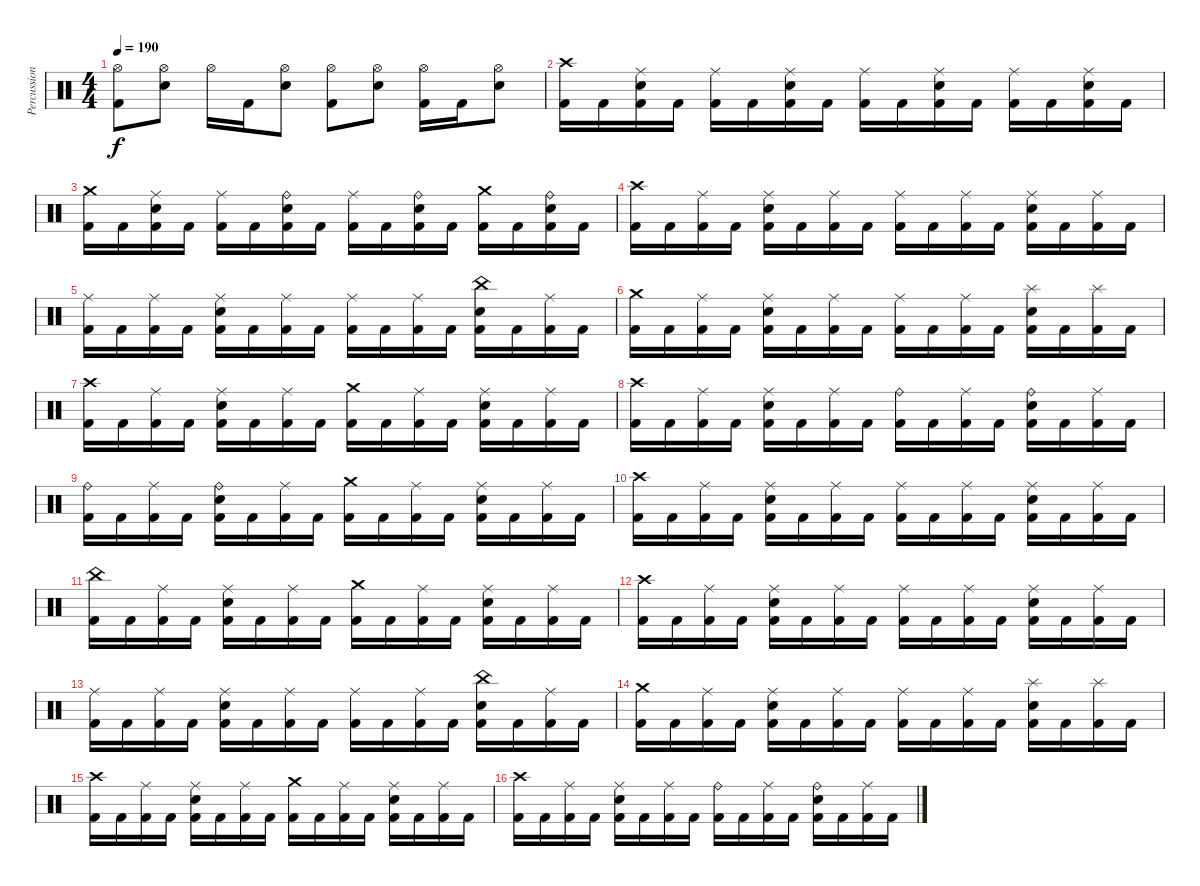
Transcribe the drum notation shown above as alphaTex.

\track ("Percussion" "Percussion") {instrument percussion}
\staff {score}
\articulation defaults
\ts (4 4)
\tempo 190
\clef neutral
\ks c
("Hi-Hat (open)" "Kick (hit) 2").8{dy f} ("Hi-Hat (open)" "Snare (hit) 2").8 "Hi-Hat (open)".16 "Kick (hit) 2".16 ("Hi-Hat (open)" "Snare (hit) 2").8 ("Hi-Hat (open)" "Kick (hit) 2").8 ("Hi-Hat (open)" "Snare (hit) 2").8 ("Hi-Hat (open)" "Kick (hit) 2").16 "Kick (hit) 2".16 ("Hi-Hat (open)" "Snare (hit) 2").8 |
("Crash high (hit)" "Kick (hit) 2").16 "Kick (hit) 2".16 ("Ride (middle)" "Snare (hit) 2" "Kick (hit) 2").16 "Kick (hit) 2".16 ("Ride (middle)" "Kick (hit) 2").16 "Kick (hit) 2".16 ("Ride (middle)" "Snare (hit) 2" "Kick (hit) 2").16 "Kick (hit) 2".16 ("Ride (middle)" "Kick (hit) 2").16 "Kick (hit) 2".16 ("Ride (middle)" "Snare (hit) 2" "Kick (hit) 2").16 "Kick (hit) 2".16 ("Ride (middle)" "Kick (hit) 2").16 "Kick (hit) 2".16 ("Ride (middle)" "Snare (hit) 2" "Kick (hit) 2").16 "Kick (hit) 2".16 |
("Crash medium (hit)" "Kick (hit) 2").16 "Kick (hit) 2".16 ("Ride (middle)" "Snare (hit) 2" "Kick (hit) 2").16 "Kick (hit) 2".16 ("Ride (middle)" "Kick (hit) 2").16 "Kick (hit) 2".16 ("Ride (bell)" "Snare (hit) 2" "Kick (hit) 2").16 "Kick (hit) 2".16 ("Ride (middle)" "Kick (hit) 2").16 "Kick (hit) 2".16 ("Ride (bell)" "Snare (hit) 2" "Kick (hit) 2").16 "Kick (hit) 2".16 ("Crash medium (hit)" "Kick (hit) 2").16 "Kick (hit) 2".16 ("Ride (bell)" "Snare (hit) 2" "Kick (hit) 2").16 "Kick (hit) 2".16 |
("Crash high (hit)" "Kick (hit) 2").16 "Kick (hit) 2".16 ("Ride (middle)" "Kick (hit) 2").16 "Kick (hit) 2".16 ("Ride (middle)" "Snare (hit) 2" "Kick (hit) 2").16 "Kick (hit) 2".16 ("Ride (middle)" "Kick (hit) 2").16 "Kick (hit) 2".16 ("Ride (middle)" "Kick (hit) 2").16 "Kick (hit) 2".16 ("Ride (middle)" "Kick (hit) 2").16 "Kick (hit) 2".16 ("Ride (middle)" "Snare (hit) 2" "Kick (hit) 2").16 "Kick (hit) 2".16 ("Ride (middle)" "Kick (hit) 2").16 "Kick (hit) 2".16 |
("Ride (middle)" "Kick (hit) 2").16 "Kick (hit) 2".16 ("Ride (middle)" "Kick (hit) 2").16 "Kick (hit) 2".16 ("Ride (middle)" "Snare (hit) 2" "Kick (hit) 2").16 "Kick (hit) 2".16 ("Ride (middle)" "Kick (hit) 2").16 "Kick (hit) 2".16 ("Ride (middle)" "Kick (hit) 2").16 "Kick (hit) 2".16 ("Ride (middle)" "Kick (hit) 2").16 "Kick (hit) 2".16 ("China (hit)" "Snare (hit) 2" "Kick (hit) 2").16 "Kick (hit) 2".16 ("Ride (middle)" "Kick (hit) 2").16 "Kick (hit) 2".16 |
("Crash medium (hit)" "Kick (hit) 2").16 "Kick (hit) 2".16 ("Ride (middle)" "Kick (hit) 2").16 "Kick (hit) 2".16 ("Ride (middle)" "Snare (hit) 2" "Kick (hit) 2").16 "Kick (hit) 2".16 ("Ride (middle)" "Kick (hit) 2").16 "Kick (hit) 2".16 ("Ride (middle)" "Kick (hit) 2").16 "Kick (hit) 2".16 ("Ride (middle)" "Kick (hit) 2").16 "Kick (hit) 2".16 ("Splash (hit)" "Snare (hit) 2" "Kick (hit) 2").16 "Kick (hit) 2".16 ("Splash (hit)" "Kick (hit) 2").16 "Kick (hit) 2".16 |
("Crash high (hit)" "Kick (hit) 2").16 "Kick (hit) 2".16 ("Ride (middle)" "Kick (hit) 2").16 "Kick (hit) 2".16 ("Ride (middle)" "Snare (hit) 2" "Kick (hit) 2").16 "Kick (hit) 2".16 ("Ride (middle)" "Kick (hit) 2").16 "Kick (hit) 2".16 ("Crash medium (hit)" "Kick (hit) 2").16 "Kick (hit) 2".16 ("Ride (middle)" "Kick (hit) 2").16 "Kick (hit) 2".16 ("Ride (middle)" "Snare (hit) 2" "Kick (hit) 2").16 "Kick (hit) 2".16 ("Ride (middle)" "Kick (hit) 2").16 "Kick (hit) 2".16 |
("Crash high (hit)" "Kick (hit) 2").16 "Kick (hit) 2".16 ("Ride (middle)" "Kick (hit) 2").16 "Kick (hit) 2".16 ("Ride (middle)" "Snare (hit) 2" "Kick (hit) 2").16 "Kick (hit) 2".16 ("Ride (middle)" "Kick (hit) 2").16 "Kick (hit) 2".16 ("Ride (bell)" "Kick (hit) 2").16 "Kick (hit) 2".16 ("Ride (middle)" "Kick (hit) 2").16 "Kick (hit) 2".16 ("Ride (bell)" "Snare (hit) 2" "Kick (hit) 2").16 "Kick (hit) 2".16 ("Ride (middle)" "Kick (hit) 2").16 "Kick (hit) 2".16 |
("Ride (bell)" "Kick (hit) 2").16 "Kick (hit) 2".16 ("Ride (middle)" "Kick (hit) 2").16 "Kick (hit) 2".16 ("Ride (bell)" "Snare (hit) 2" "Kick (hit) 2").16 "Kick (hit) 2".16 ("Ride (middle)" "Kick (hit) 2").16 "Kick (hit) 2".16 ("Crash medium (hit)" "Kick (hit) 2").16 "Kick (hit) 2".16 ("Ride (middle)" "Kick (hit) 2").16 "Kick (hit) 2".16 ("Ride (middle)" "Snare (hit) 2" "Kick (hit) 2").16 "Kick (hit) 2".16 ("Ride (middle)" "Kick (hit) 2").16 "Kick (hit) 2".16 |
("Crash high (hit)" "Kick (hit) 2").16 "Kick (hit) 2".16 ("Ride (middle)" "Kick (hit) 2").16 "Kick (hit) 2".16 ("Ride (middle)" "Snare (hit) 2" "Kick (hit) 2").16 "Kick (hit) 2".16 ("Ride (middle)" "Kick (hit) 2").16 "Kick (hit) 2".16 ("Ride (middle)" "Kick (hit) 2").16 "Kick (hit) 2".16 ("Ride (middle)" "Kick (hit) 2").16 "Kick (hit) 2".16 ("Ride (middle)" "Snare (hit) 2" "Kick (hit) 2").16 "Kick (hit) 2".16 ("Ride (middle)" "Kick (hit) 2").16 "Kick (hit) 2".16 |
("China (hit)" "Kick (hit) 2").16 "Kick (hit) 2".16 ("Ride (middle)" "Kick (hit) 2").16 "Kick (hit) 2".16 ("Ride (middle)" "Snare (hit) 2" "Kick (hit) 2").16 "Kick (hit) 2".16 ("Ride (middle)" "Kick (hit) 2").16 "Kick (hit) 2".16 ("Crash medium (hit)" "Kick (hit) 2").16 "Kick (hit) 2".16 ("Ride (middle)" "Kick (hit) 2").16 "Kick (hit) 2".16 ("Ride (middle)" "Snare (hit) 2" "Kick (hit) 2").16 "Kick (hit) 2".16 ("Ride (middle)" "Kick (hit) 2").16 "Kick (hit) 2".16 |
("Crash high (hit)" "Kick (hit) 2").16 "Kick (hit) 2".16 ("Ride (middle)" "Kick (hit) 2").16 "Kick (hit) 2".16 ("Ride (middle)" "Snare (hit) 2" "Kick (hit) 2").16 "Kick (hit) 2".16 ("Ride (middle)" "Kick (hit) 2").16 "Kick (hit) 2".16 ("Ride (middle)" "Kick (hit) 2").16 "Kick (hit) 2".16 ("Ride (middle)" "Kick (hit) 2").16 "Kick (hit) 2".16 ("Ride (middle)" "Snare (hit) 2" "Kick (hit) 2").16 "Kick (hit) 2".16 ("Ride (middle)" "Kick (hit) 2").16 "Kick (hit) 2".16 |
("Ride (middle)" "Kick (hit) 2").16 "Kick (hit) 2".16 ("Ride (middle)" "Kick (hit) 2").16 "Kick (hit) 2".16 ("Ride (middle)" "Snare (hit) 2" "Kick (hit) 2").16 "Kick (hit) 2".16 ("Ride (middle)" "Kick (hit) 2").16 "Kick (hit) 2".16 ("Ride (middle)" "Kick (hit) 2").16 "Kick (hit) 2".16 ("Ride (middle)" "Kick (hit) 2").16 "Kick (hit) 2".16 ("China (hit)" "Snare (hit) 2" "Kick (hit) 2").16 "Kick (hit) 2".16 ("Ride (middle)" "Kick (hit) 2").16 "Kick (hit) 2".16 |
("Crash medium (hit)" "Kick (hit) 2").16 "Kick (hit) 2".16 ("Ride (middle)" "Kick (hit) 2").16 "Kick (hit) 2".16 ("Ride (middle)" "Snare (hit) 2" "Kick (hit) 2").16 "Kick (hit) 2".16 ("Ride (middle)" "Kick (hit) 2").16 "Kick (hit) 2".16 ("Ride (middle)" "Kick (hit) 2").16 "Kick (hit) 2".16 ("Ride (middle)" "Kick (hit) 2").16 "Kick (hit) 2".16 ("Splash (hit)" "Snare (hit) 2" "Kick (hit) 2").16 "Kick (hit) 2".16 ("Splash (hit)" "Kick (hit) 2").16 "Kick (hit) 2".16 |
("Crash high (hit)" "Kick (hit) 2").16 "Kick (hit) 2".16 ("Ride (middle)" "Kick (hit) 2").16 "Kick (hit) 2".16 ("Ride (middle)" "Snare (hit) 2" "Kick (hit) 2").16 "Kick (hit) 2".16 ("Ride (middle)" "Kick (hit) 2").16 "Kick (hit) 2".16 ("Crash medium (hit)" "Kick (hit) 2").16 "Kick (hit) 2".16 ("Ride (middle)" "Kick (hit) 2").16 "Kick (hit) 2".16 ("Ride (middle)" "Snare (hit) 2" "Kick (hit) 2").16 "Kick (hit) 2".16 ("Ride (middle)" "Kick (hit) 2").16 "Kick (hit) 2".16 |
("Crash high (hit)" "Kick (hit) 2").16 "Kick (hit) 2".16 ("Ride (middle)" "Kick (hit) 2").16 "Kick (hit) 2".16 ("Ride (middle)" "Snare (hit) 2" "Kick (hit) 2").16 "Kick (hit) 2".16 ("Ride (middle)" "Kick (hit) 2").16 "Kick (hit) 2".16 ("Ride (bell)" "Kick (hit) 2").16 "Kick (hit) 2".16 ("Ride (middle)" "Kick (hit) 2").16 "Kick (hit) 2".16 ("Ride (bell)" "Snare (hit) 2" "Kick (hit) 2").16 "Kick (hit) 2".16 ("Ride (middle)" "Kick (hit) 2").16 "Kick (hit) 2".16
